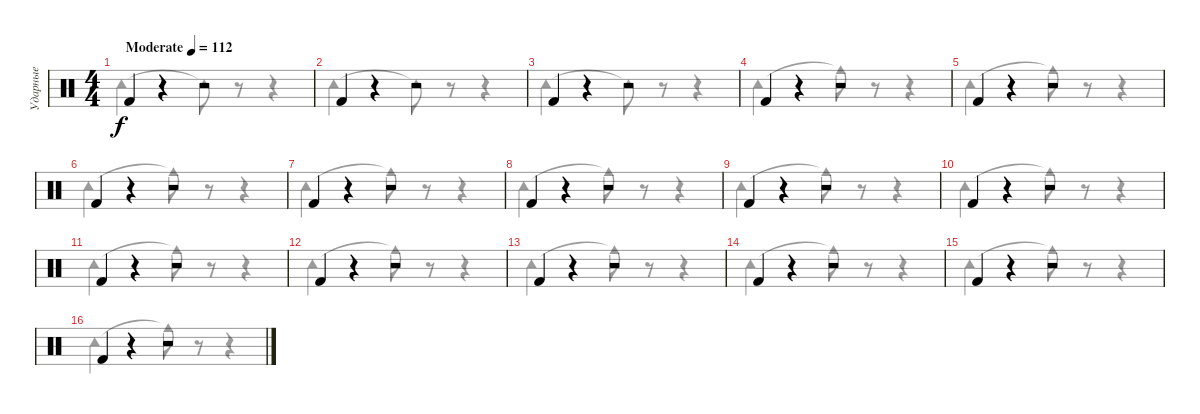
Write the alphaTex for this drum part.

\track ("Ударные" "Ударные") {instrument percussion}
\staff {score}
\articulation defaults
\voice
\ts (4 4)
\tempo (112 "Moderate")
\clef neutral
\ks c "Kick (hit) 2".4{dy f}
r.4 r.2 |
"Kick (hit) 2".4 r.4 r.2 |
"Kick (hit) 2".4 r.4 r.2 |
"Kick (hit) 2".4 r.4 r.2 |
"Kick (hit) 2".4 r.4 r.2 |
"Kick (hit) 2".4 r.4 r.2 |
"Kick (hit) 2".4 r.4 r.2 |
"Kick (hit) 2".4 r.4 r.2 |
"Kick (hit) 2".4 r.4 r.2 |
"Kick (hit) 2".4 r.4 r.2 |
"Kick (hit) 2".4 r.4 r.2 |
"Kick (hit) 2".4 r.4 r.2 |
"Kick (hit) 2".4 r.4 r.2 |
"Kick (hit) 2".4 r.4 r.2 |
"Kick (hit) 2".4 r.4 r.2 |
"Kick (hit) 2".4 r.4 r.2
\voice
\clef neutral
\ottava regular
\simile none
\ks c "Tambourine (hit)".2{dy f} "Tambourine (hit)"{t}.8
r.8 r.4 |
"Tambourine (hit)".2 "Tambourine (hit)"{t}.8 r.8 r.4 |
"Tambourine (hit)".2 "Tambourine (hit)"{t}.8 r.8 r.4 |
"Tambourine (hit)".2 "Cowbell medium (hit)"{t}.8 r.8 r.4 |
"Tambourine (hit)".2 "Cowbell medium (hit)"{t}.8 r.8 r.4 |
"Tambourine (hit)".2 "Cowbell medium (hit)"{t}.8 r.8 r.4 |
"Tambourine (hit)".2 "Cowbell medium (hit)"{t}.8 r.8 r.4 |
"Tambourine (hit)".2 "Cowbell medium (hit)"{t}.8 r.8 r.4 |
"Tambourine (hit)".2 "Cowbell medium (hit)"{t}.8 r.8 r.4 |
"Tambourine (hit)".2 "Cowbell medium (hit)"{t}.8 r.8 r.4 |
"Tambourine (hit)".2 "Cowbell medium (hit)"{t}.8 r.8 r.4 |
"Tambourine (hit)".2 "Cowbell medium (hit)"{t}.8 r.8 r.4 |
"Tambourine (hit)".2 "Cowbell medium (hit)"{t}.8 r.8 r.4 |
"Tambourine (hit)".2 "Cowbell medium (hit)"{t}.8 r.8 r.4 |
"Tambourine (hit)".2 "Cowbell medium (hit)"{t}.8 r.8 r.4 |
"Tambourine (hit)".2 "Cowbell medium (hit)"{t}.8 r.8 r.4
